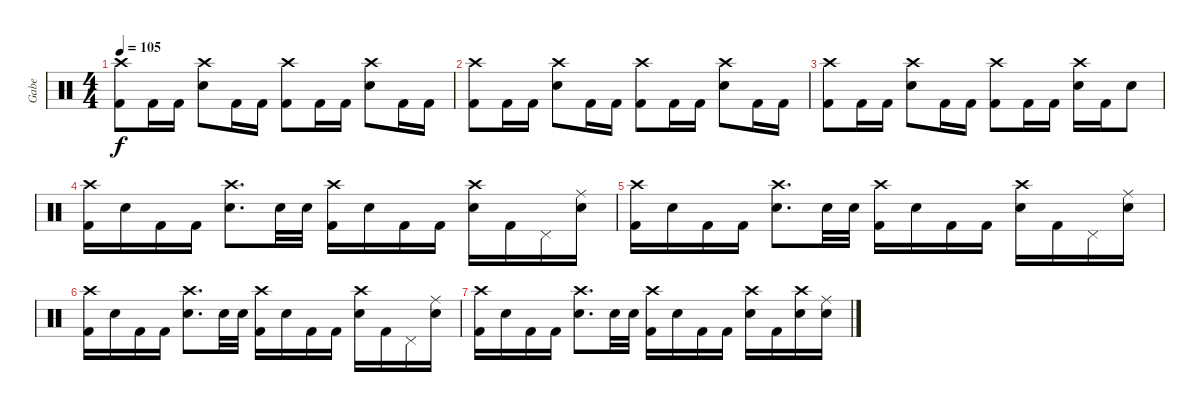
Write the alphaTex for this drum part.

\track ("Gabe" "Gabe") {instrument percussion}
\staff {score}
\articulation defaults
\ts (4 4)
\tempo 105
\clef neutral
\ks c
("Crash high (hit)" "Kick (hit) 2").8{dy f} "Kick (hit) 2".16 "Kick (hit) 2".16 ("Crash high (hit)" "Electric Snare (hit)").8 "Kick (hit) 2".16 "Kick (hit) 2".16 ("Crash high (hit)" "Kick (hit) 2").8 "Kick (hit) 2".16 "Kick (hit) 2".16 ("Crash high (hit)" "Electric Snare (hit)").8 "Kick (hit) 2".16 "Kick (hit) 2".16 |
("Crash high (hit)" "Kick (hit) 2").8 "Kick (hit) 2".16 "Kick (hit) 2".16 ("Crash high (hit)" "Electric Snare (hit)").8 "Kick (hit) 2".16 "Kick (hit) 2".16 ("Crash high (hit)" "Kick (hit) 2").8 "Kick (hit) 2".16 "Kick (hit) 2".16 ("Crash high (hit)" "Electric Snare (hit)").8 "Kick (hit) 2".16 "Kick (hit) 2".16 |
("Crash high (hit)" "Kick (hit) 2").8 "Kick (hit) 2".16 "Kick (hit) 2".16 ("Crash high (hit)" "Electric Snare (hit)").8 "Kick (hit) 2".16 "Kick (hit) 2".16 ("Crash high (hit)" "Kick (hit) 2").8 "Kick (hit) 2".16 "Kick (hit) 2".16 ("Crash high (hit)" "Electric Snare (hit)").16 "Kick (hit) 2".16 "Electric Snare (hit)".8 |
("Crash high (hit)" "Kick (hit) 2").16 "Electric Snare (hit)".16 "Kick (hit) 2".16 "Kick (hit) 2".16 ("Crash high (hit)" "Electric Snare (hit)").8{d} "Electric Snare (hit)".32 "Electric Snare (hit)".32 ("Crash high (hit)" "Kick (hit) 2").16 "Electric Snare (hit)".16 "Kick (hit) 2".16 "Kick (hit) 2".16 ("Crash high (hit)" "Electric Snare (hit)").16 "Kick (hit) 2".16 "Pedal Hi-Hat (hit)".16 ("Ride (middle)" "Electric Snare (hit)").16 |
("Crash high (hit)" "Kick (hit) 2").16 "Electric Snare (hit)".16 "Kick (hit) 2".16 "Kick (hit) 2".16 ("Crash high (hit)" "Electric Snare (hit)").8{d} "Electric Snare (hit)".32 "Electric Snare (hit)".32 ("Crash high (hit)" "Kick (hit) 2").16 "Electric Snare (hit)".16 "Kick (hit) 2".16 "Kick (hit) 2".16 ("Crash high (hit)" "Electric Snare (hit)").16 "Kick (hit) 2".16 "Pedal Hi-Hat (hit)".16 ("Ride (middle)" "Electric Snare (hit)").16 |
("Crash high (hit)" "Kick (hit) 2").16 "Electric Snare (hit)".16 "Kick (hit) 2".16 "Kick (hit) 2".16 ("Crash high (hit)" "Electric Snare (hit)").8{d} "Electric Snare (hit)".32 "Electric Snare (hit)".32 ("Crash high (hit)" "Kick (hit) 2").16 "Electric Snare (hit)".16 "Kick (hit) 2".16 "Kick (hit) 2".16 ("Crash high (hit)" "Electric Snare (hit)").16 "Kick (hit) 2".16 "Pedal Hi-Hat (hit)".16 ("Ride (middle)" "Electric Snare (hit)").16 |
("Crash high (hit)" "Kick (hit) 2").16 "Electric Snare (hit)".16 "Kick (hit) 2".16 "Kick (hit) 2".16 ("Crash high (hit)" "Electric Snare (hit)").8{d} "Electric Snare (hit)".32 "Electric Snare (hit)".32 ("Crash high (hit)" "Kick (hit) 2").16 "Electric Snare (hit)".16 "Kick (hit) 2".16 "Kick (hit) 2".16 ("Crash high (hit)" "Electric Snare (hit)").16 "Kick (hit) 2".16 ("Crash high (hit)" "Electric Snare (hit)").16 ("Ride (middle)" "Electric Snare (hit)").16
